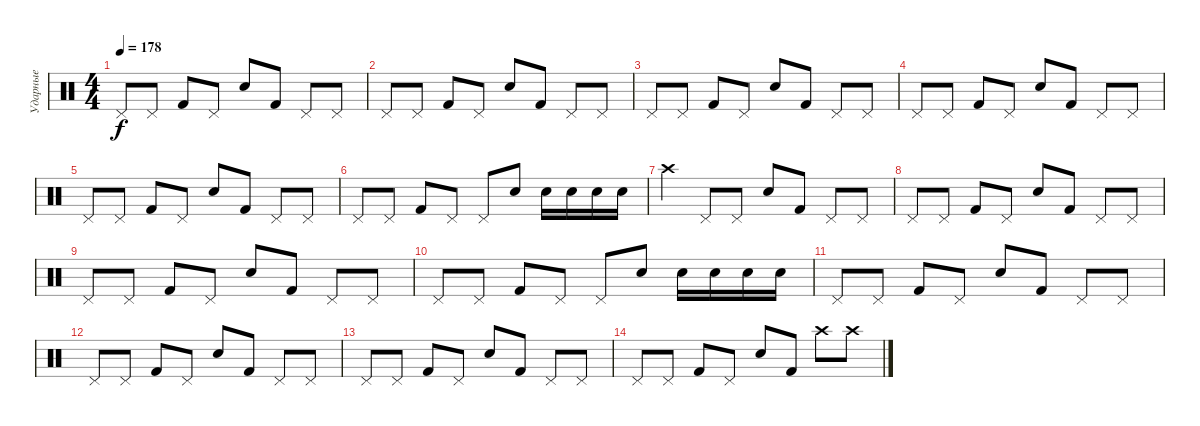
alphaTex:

\track ("Ударные" "Ударные") {instrument percussion}
\staff {score}
\articulation defaults
\ts (4 4)
\tempo 178
\clef neutral
\ks c "Pedal Hi-Hat (hit)".8{dy f} "Pedal Hi-Hat (hit)".8 "Kick (hit) 2".8 "Pedal Hi-Hat (hit)".8 "Electric Snare (hit)".8 "Kick (hit) 2".8 "Pedal Hi-Hat (hit)".8 "Pedal Hi-Hat (hit)".8
|
"Pedal Hi-Hat (hit)".8 "Pedal Hi-Hat (hit)".8 "Kick (hit) 2".8 "Pedal Hi-Hat (hit)".8 "Electric Snare (hit)".8 "Kick (hit) 2".8 "Pedal Hi-Hat (hit)".8 "Pedal Hi-Hat (hit)".8 |
"Pedal Hi-Hat (hit)".8 "Pedal Hi-Hat (hit)".8 "Kick (hit) 2".8 "Pedal Hi-Hat (hit)".8 "Electric Snare (hit)".8 "Kick (hit) 2".8 "Pedal Hi-Hat (hit)".8 "Pedal Hi-Hat (hit)".8 |
"Pedal Hi-Hat (hit)".8 "Pedal Hi-Hat (hit)".8 "Kick (hit) 2".8 "Pedal Hi-Hat (hit)".8 "Electric Snare (hit)".8 "Kick (hit) 2".8 "Pedal Hi-Hat (hit)".8 "Pedal Hi-Hat (hit)".8 |
"Pedal Hi-Hat (hit)".8 "Pedal Hi-Hat (hit)".8 "Kick (hit) 2".8 "Pedal Hi-Hat (hit)".8 "Electric Snare (hit)".8 "Kick (hit) 2".8 "Pedal Hi-Hat (hit)".8 "Pedal Hi-Hat (hit)".8 |
"Pedal Hi-Hat (hit)".8 "Pedal Hi-Hat (hit)".8 "Kick (hit) 2".8 "Pedal Hi-Hat (hit)".8 "Pedal Hi-Hat (hit)".8 "Electric Snare (hit)".8 "Electric Snare (hit)".16 "Electric Snare (hit)".16 "Electric Snare (hit)".16 "Electric Snare (hit)".16 |
"Crash high (hit)".4 "Pedal Hi-Hat (hit)".8 "Pedal Hi-Hat (hit)".8 "Electric Snare (hit)".8 "Kick (hit) 2".8 "Pedal Hi-Hat (hit)".8 "Pedal Hi-Hat (hit)".8 |
"Pedal Hi-Hat (hit)".8 "Pedal Hi-Hat (hit)".8 "Kick (hit) 2".8 "Pedal Hi-Hat (hit)".8 "Electric Snare (hit)".8 "Kick (hit) 2".8 "Pedal Hi-Hat (hit)".8 "Pedal Hi-Hat (hit)".8 |
"Pedal Hi-Hat (hit)".8 "Pedal Hi-Hat (hit)".8 "Kick (hit) 2".8 "Pedal Hi-Hat (hit)".8 "Electric Snare (hit)".8 "Kick (hit) 2".8 "Pedal Hi-Hat (hit)".8 "Pedal Hi-Hat (hit)".8 |
"Pedal Hi-Hat (hit)".8 "Pedal Hi-Hat (hit)".8 "Kick (hit) 2".8 "Pedal Hi-Hat (hit)".8 "Pedal Hi-Hat (hit)".8 "Electric Snare (hit)".8 "Electric Snare (hit)".16 "Electric Snare (hit)".16 "Electric Snare (hit)".16 "Electric Snare (hit)".16 |
"Pedal Hi-Hat (hit)".8 "Pedal Hi-Hat (hit)".8 "Kick (hit) 2".8 "Pedal Hi-Hat (hit)".8 "Electric Snare (hit)".8 "Kick (hit) 2".8 "Pedal Hi-Hat (hit)".8 "Pedal Hi-Hat (hit)".8 |
"Pedal Hi-Hat (hit)".8 "Pedal Hi-Hat (hit)".8 "Kick (hit) 2".8 "Pedal Hi-Hat (hit)".8 "Electric Snare (hit)".8 "Kick (hit) 2".8 "Pedal Hi-Hat (hit)".8 "Pedal Hi-Hat (hit)".8 |
"Pedal Hi-Hat (hit)".8 "Pedal Hi-Hat (hit)".8 "Kick (hit) 2".8 "Pedal Hi-Hat (hit)".8 "Electric Snare (hit)".8 "Kick (hit) 2".8 "Pedal Hi-Hat (hit)".8 "Pedal Hi-Hat (hit)".8 |
"Pedal Hi-Hat (hit)".8 "Pedal Hi-Hat (hit)".8 "Kick (hit) 2".8 "Pedal Hi-Hat (hit)".8 "Electric Snare (hit)".8 "Kick (hit) 2".8 "Crash high (hit)".8 "Crash high (hit)".8
